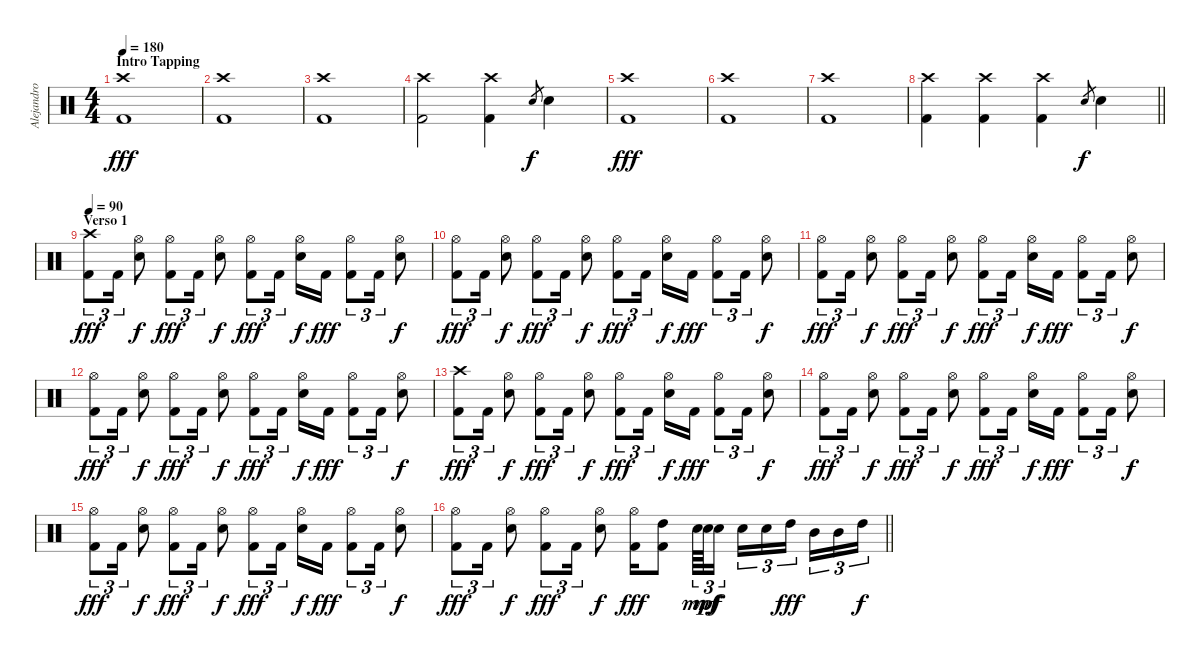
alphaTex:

\track ("Alejandro Gutiérrez" "Alejandro ") {instrument percussion}
\staff {score}
\articulation defaults
\ts (4 4)
\section ("" "Intro Tapping")
\tempo 180
\clef neutral
\ks c
("Crash high (hit)" "Kick (hit) 2").1{dy fff} |
("Crash high (hit)" "Kick (hit) 2").1 |
("Crash high (hit)" "Kick (hit) 2").1 |
("Crash high (hit)" "Kick (hit) 2").2 ("Crash high (hit)" "Kick (hit) 2").4 "Electric Snare (hit)".8{gr dy f} "Electric Snare (hit)".4 |
("Crash high (hit)" "Kick (hit) 2").1{dy fff} |
("Crash high (hit)" "Kick (hit) 2").1 |
("Crash high (hit)" "Kick (hit) 2").1 |
\barLineRight lightlight
("Crash high (hit)" "Kick (hit) 2").4 ("Crash high (hit)" "Kick (hit) 2").4 ("Crash high (hit)" "Kick (hit) 2").4 "Electric Snare (hit)".8{gr dy f} "Electric Snare (hit)".4 |
\section ("" "Verso 1")
\tempo 90
("Crash high (hit)" "Kick (hit) 2").8{tu (3 2) dy fff} "Kick (hit) 2".16{tu (3 2)} ("Hi-Hat (open)" "Electric Snare (hit)").8{dy f} ("Hi-Hat (open)" "Kick (hit) 2").8{tu (3 2) dy fff} "Kick (hit) 2".16{tu (3 2)} ("Hi-Hat (open)" "Electric Snare (hit)").8{dy f} ("Hi-Hat (open)" "Kick (hit) 2").8{tu (3 2) dy fff} "Kick (hit) 2".16{tu (3 2) beam splitsecondary} ("Hi-Hat (open)" "Electric Snare (hit)").16{dy f} "Kick (hit) 2".16{dy fff} ("Hi-Hat (open)" "Kick (hit) 2").8{tu (3 2)} "Kick (hit) 2".16{tu (3 2)} ("Hi-Hat (open)" "Electric Snare (hit)").8{dy f} |
("Hi-Hat (open)" "Kick (hit) 2").8{tu (3 2) dy fff} "Kick (hit) 2".16{tu (3 2)} ("Hi-Hat (open)" "Electric Snare (hit)").8{dy f} ("Hi-Hat (open)" "Kick (hit) 2").8{tu (3 2) dy fff} "Kick (hit) 2".16{tu (3 2)} ("Hi-Hat (open)" "Electric Snare (hit)").8{dy f} ("Hi-Hat (open)" "Kick (hit) 2").8{tu (3 2) dy fff} "Kick (hit) 2".16{tu (3 2) beam splitsecondary} ("Hi-Hat (open)" "Electric Snare (hit)").16{dy f} "Kick (hit) 2".16{dy fff} ("Hi-Hat (open)" "Kick (hit) 2").8{tu (3 2)} "Kick (hit) 2".16{tu (3 2)} ("Hi-Hat (open)" "Electric Snare (hit)").8{dy f} |
("Hi-Hat (open)" "Kick (hit) 2").8{tu (3 2) dy fff} "Kick (hit) 2".16{tu (3 2)} ("Hi-Hat (open)" "Electric Snare (hit)").8{dy f} ("Hi-Hat (open)" "Kick (hit) 2").8{tu (3 2) dy fff} "Kick (hit) 2".16{tu (3 2)} ("Hi-Hat (open)" "Electric Snare (hit)").8{dy f} ("Hi-Hat (open)" "Kick (hit) 2").8{tu (3 2) dy fff} "Kick (hit) 2".16{tu (3 2) beam splitsecondary} ("Hi-Hat (open)" "Electric Snare (hit)").16{dy f} "Kick (hit) 2".16{dy fff} ("Hi-Hat (open)" "Kick (hit) 2").8{tu (3 2)} "Kick (hit) 2".16{tu (3 2)} ("Hi-Hat (open)" "Electric Snare (hit)").8{dy f} |
("Hi-Hat (open)" "Kick (hit) 2").8{tu (3 2) dy fff} "Kick (hit) 2".16{tu (3 2)} ("Hi-Hat (open)" "Electric Snare (hit)").8{dy f} ("Hi-Hat (open)" "Kick (hit) 2").8{tu (3 2) dy fff} "Kick (hit) 2".16{tu (3 2)} ("Hi-Hat (open)" "Electric Snare (hit)").8{dy f} ("Hi-Hat (open)" "Kick (hit) 2").8{tu (3 2) dy fff} "Kick (hit) 2".16{tu (3 2) beam splitsecondary} ("Hi-Hat (open)" "Electric Snare (hit)").16{dy f} "Kick (hit) 2".16{dy fff} ("Hi-Hat (open)" "Kick (hit) 2").8{tu (3 2)} "Kick (hit) 2".16{tu (3 2)} ("Hi-Hat (open)" "Electric Snare (hit)").8{dy f} |
("Crash high (hit)" "Kick (hit) 2").8{tu (3 2) dy fff} "Kick (hit) 2".16{tu (3 2)} ("Hi-Hat (open)" "Electric Snare (hit)").8{dy f} ("Hi-Hat (open)" "Kick (hit) 2").8{tu (3 2) dy fff} "Kick (hit) 2".16{tu (3 2)} ("Hi-Hat (open)" "Electric Snare (hit)").8{dy f} ("Hi-Hat (open)" "Kick (hit) 2").8{tu (3 2) dy fff} "Kick (hit) 2".16{tu (3 2) beam splitsecondary} ("Hi-Hat (open)" "Electric Snare (hit)").16{dy f} "Kick (hit) 2".16{dy fff} ("Hi-Hat (open)" "Kick (hit) 2").8{tu (3 2)} "Kick (hit) 2".16{tu (3 2)} ("Hi-Hat (open)" "Electric Snare (hit)").8{dy f} |
("Hi-Hat (open)" "Kick (hit) 2").8{tu (3 2) dy fff} "Kick (hit) 2".16{tu (3 2)} ("Hi-Hat (open)" "Electric Snare (hit)").8{dy f} ("Hi-Hat (open)" "Kick (hit) 2").8{tu (3 2) dy fff} "Kick (hit) 2".16{tu (3 2)} ("Hi-Hat (open)" "Electric Snare (hit)").8{dy f} ("Hi-Hat (open)" "Kick (hit) 2").8{tu (3 2) dy fff} "Kick (hit) 2".16{tu (3 2) beam splitsecondary} ("Hi-Hat (open)" "Electric Snare (hit)").16{dy f} "Kick (hit) 2".16{dy fff} ("Hi-Hat (open)" "Kick (hit) 2").8{tu (3 2)} "Kick (hit) 2".16{tu (3 2)} ("Hi-Hat (open)" "Electric Snare (hit)").8{dy f} |
("Hi-Hat (open)" "Kick (hit) 2").8{tu (3 2) dy fff} "Kick (hit) 2".16{tu (3 2)} ("Hi-Hat (open)" "Electric Snare (hit)").8{dy f} ("Hi-Hat (open)" "Kick (hit) 2").8{tu (3 2) dy fff} "Kick (hit) 2".16{tu (3 2)} ("Hi-Hat (open)" "Electric Snare (hit)").8{dy f} ("Hi-Hat (open)" "Kick (hit) 2").8{tu (3 2) dy fff} "Kick (hit) 2".16{tu (3 2) beam splitsecondary} ("Hi-Hat (open)" "Electric Snare (hit)").16{dy f} "Kick (hit) 2".16{dy fff} ("Hi-Hat (open)" "Kick (hit) 2").8{tu (3 2)} "Kick (hit) 2".16{tu (3 2)} ("Hi-Hat (open)" "Electric Snare (hit)").8{dy f} |
\barLineRight lightlight
("Hi-Hat (open)" "Kick (hit) 2").8{tu (3 2) dy fff} "Kick (hit) 2".16{tu (3 2)} ("Hi-Hat (open)" "Electric Snare (hit)").8{dy f} ("Hi-Hat (open)" "Kick (hit) 2").8{tu (3 2) dy fff} "Kick (hit) 2".16{tu (3 2)} ("Hi-Hat (open)" "Electric Snare (hit)").8{dy f} ("Hi-Hat (open)" "Kick (hit) 2").16{dy fff} ("High Tom (hit)" "Kick (hit) 2").8 "Electric Snare (hit)".64{tu (3 2) dy mp} "Electric Snare (hit)".64{tu (3 2) dy mf} "Electric Snare (hit)".16{tu (3 2) dy f} "Electric Snare (hit)".16{tu (3 2)} "Electric Snare (hit)".16{tu (3 2)} "High Tom (hit)".16{tu (3 2) dy fff beam splitsecondary} "Mid Tom (hit)".16{tu (3 2)} "Mid Tom (hit)".16{tu (3 2)} "High Tom (hit)".16{tu (3 2) dy f}
